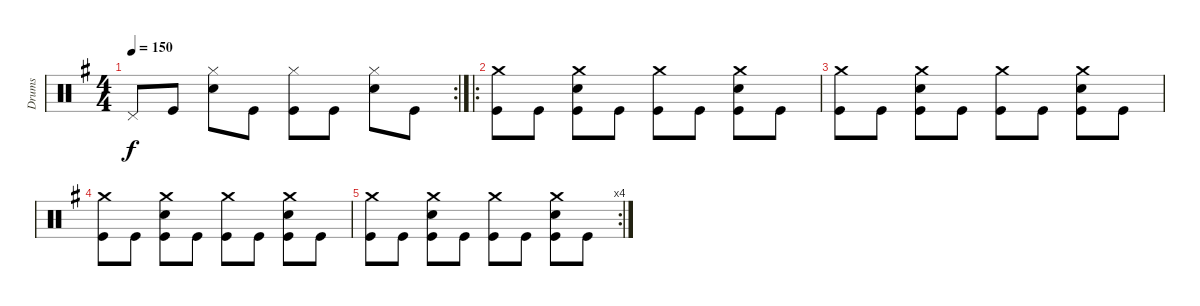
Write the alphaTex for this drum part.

\track ("Drums" "Drums") {instrument percussion}
\staff {score}
\articulation defaults
\rc 2
\ts (4 4)
\tempo 150
\clef neutral
\ks g "Pedal Hi-Hat (hit)".8{dy f} "Kick (hit)".8
("Hi-Hat (closed)" "Snare (hit) 2").8 "Kick (hit)".8 ("Hi-Hat (closed)" "Kick (hit)").8 "Kick (hit)".8 ("Hi-Hat (closed)" "Snare (hit) 2").8 "Kick (hit)".8 |
\ro
("Crash medium (hit)" "Kick (hit)").8 "Kick (hit)".8 ("Crash medium (hit)" "Snare (hit) 2" "Kick (hit)").8 "Kick (hit)".8 ("Crash medium (hit)" "Kick (hit)").8 "Kick (hit)".8 ("Crash medium (hit)" "Snare (hit) 2" "Kick (hit)").8 "Kick (hit)".8 |
("Crash medium (hit)" "Kick (hit)").8 "Kick (hit)".8 ("Crash medium (hit)" "Snare (hit) 2" "Kick (hit)").8 "Kick (hit)".8 ("Crash medium (hit)" "Kick (hit)").8 "Kick (hit)".8 ("Crash medium (hit)" "Snare (hit) 2" "Kick (hit)").8 "Kick (hit)".8 |
("Crash medium (hit)" "Kick (hit)").8 "Kick (hit)".8 ("Crash medium (hit)" "Snare (hit) 2" "Kick (hit)").8 "Kick (hit)".8 ("Crash medium (hit)" "Kick (hit)").8 "Kick (hit)".8 ("Crash medium (hit)" "Snare (hit) 2" "Kick (hit)").8 "Kick (hit)".8 |
\rc 4
("Crash medium (hit)" "Kick (hit)").8 "Kick (hit)".8 ("Crash medium (hit)" "Snare (hit) 2" "Kick (hit)").8 "Kick (hit)".8 ("Crash medium (hit)" "Kick (hit)").8 "Kick (hit)".8 ("Crash medium (hit)" "Snare (hit) 2" "Kick (hit)").8 "Kick (hit)".8
